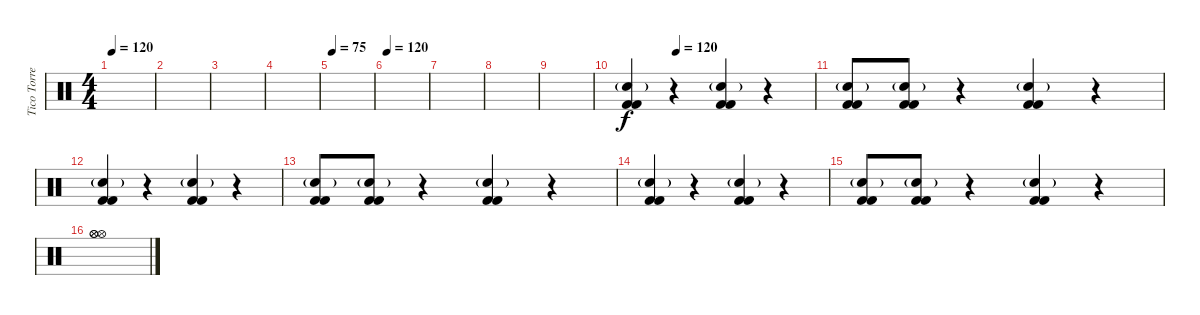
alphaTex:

\track ("Tico Torres" "Tico Torre") {instrument percussion}
\staff {score}
\articulation defaults
\ts (4 4)
\tempo 120
\tempo 90
\tempo 120
\clef neutral
\ks c
|
|
|
|
\tempo 75
|
\tempo 120
|
|
|
|
\tempo (120 0.25)
("Electric Snare (hit)"{g} "Kick (hit) 2" "Kick (hit) 2").4 r.4 ("Electric Snare (hit)"{g} "Kick (hit) 2" "Kick (hit) 2").4 r.4 |
("Electric Snare (hit)"{g} "Kick (hit) 2" "Kick (hit) 2").8 ("Electric Snare (hit)"{g} "Kick (hit) 2" "Kick (hit) 2").8 r.4 ("Electric Snare (hit)"{g} "Kick (hit) 2" "Kick (hit) 2").4 r.4 |
("Electric Snare (hit)"{g} "Kick (hit) 2" "Kick (hit) 2").4 r.4 ("Electric Snare (hit)"{g} "Kick (hit) 2" "Kick (hit) 2").4 r.4 |
("Electric Snare (hit)"{g} "Kick (hit) 2" "Kick (hit) 2").8 ("Electric Snare (hit)"{g} "Kick (hit) 2" "Kick (hit) 2").8 r.4 ("Electric Snare (hit)"{g} "Kick (hit) 2" "Kick (hit) 2").4 r.4 |
("Electric Snare (hit)"{g} "Kick (hit) 2" "Kick (hit) 2").4 r.4 ("Electric Snare (hit)"{g} "Kick (hit) 2" "Kick (hit) 2").4 r.4 |
("Electric Snare (hit)"{g} "Kick (hit) 2" "Kick (hit) 2").8 ("Electric Snare (hit)"{g} "Kick (hit) 2" "Kick (hit) 2").8 r.4 ("Electric Snare (hit)"{g} "Kick (hit) 2" "Kick (hit) 2").4 r.4 |
("Hi-Hat (open)" "Hi-Hat (open)" "Hi-Hat (open)").1{dy f}
